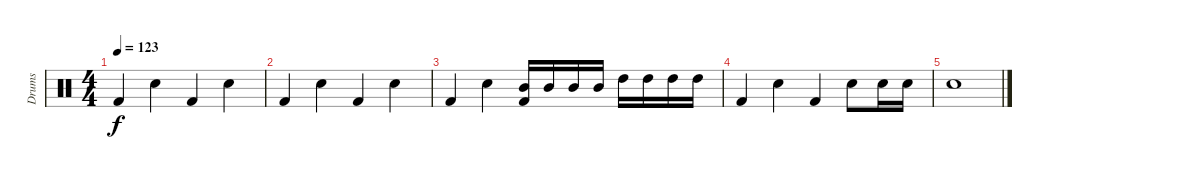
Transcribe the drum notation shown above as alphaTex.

\track ("Drums" "Drums") {instrument percussion}
\staff {score}
\articulation defaults
\ts (4 4)
\tempo 123
\clef neutral
\ks c "Kick (hit) 2".4{dy f} "Electric Snare (hit)".4 "Kick (hit) 2".4 "Electric Snare (hit)".4
|
"Kick (hit) 2".4 "Electric Snare (hit)".4 "Kick (hit) 2".4 "Electric Snare (hit)".4 |
"Kick (hit) 2".4 "Electric Snare (hit)".4 ("Mid Tom (hit)" "Kick (hit) 2").16 "Mid Tom (hit)".16 "Mid Tom (hit)".16 "Mid Tom (hit)".16 "High Tom (hit)".16 "High Tom (hit)".16 "High Tom (hit)".16 "High Tom (hit)".16 |
"Kick (hit) 2".4 "Electric Snare (hit)".4 "Kick (hit) 2".4 "Electric Snare (hit)".8 "Electric Snare (hit)".16 "Electric Snare (hit)".16 |
"Electric Snare (hit)".1
